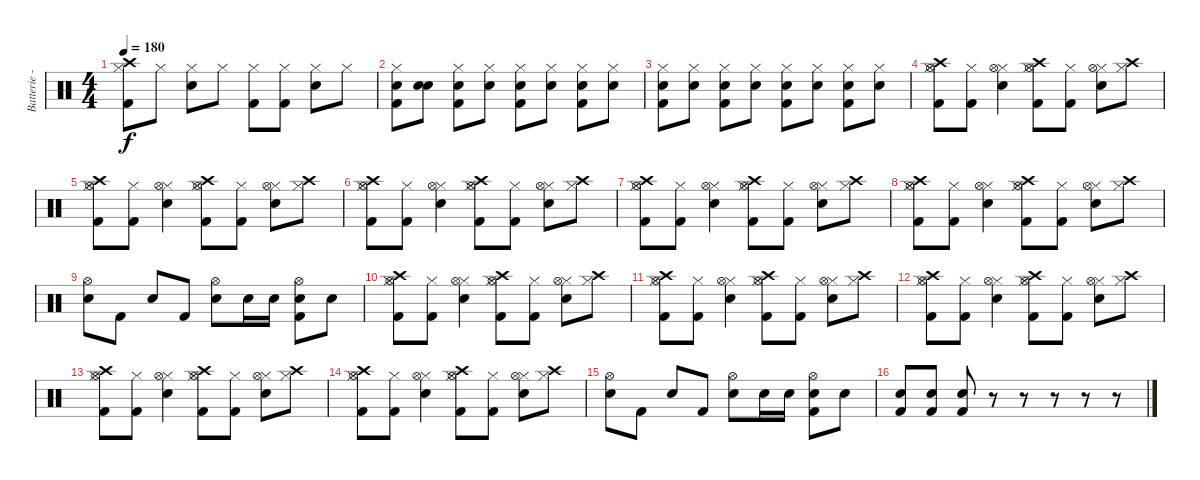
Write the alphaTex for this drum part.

\track ("Batterie - Stevo" "Batterie -") {instrument percussion}
\staff {score}
\articulation defaults
\ts (4 4)
\tempo 180
\clef neutral
\ks c
("Hi-Hat (closed)" "Kick (hit) 2" "Crash high (hit)").8{dy f} "Hi-Hat (closed)".8 ("Hi-Hat (closed)" "Electric Snare (hit)").8 "Hi-Hat (closed)".8 ("Hi-Hat (closed)" "Kick (hit) 2").8 ("Hi-Hat (closed)" "Kick (hit) 2").8 ("Hi-Hat (closed)" "Electric Snare (hit)").8 "Hi-Hat (closed)".8 |
("Hi-Hat (closed)" "Electric Snare (hit)" "Kick (hit) 2").8 ("Snare (hit)" "Electric Snare (hit)").8 ("Hi-Hat (closed)" "Electric Snare (hit)" "Kick (hit) 2").8 ("Hi-Hat (closed)" "Electric Snare (hit)").8 ("Hi-Hat (closed)" "Electric Snare (hit)" "Kick (hit) 2").8 ("Hi-Hat (closed)" "Electric Snare (hit)").8 ("Hi-Hat (closed)" "Electric Snare (hit)" "Kick (hit) 2").8 ("Hi-Hat (closed)" "Electric Snare (hit)").8 |
("Hi-Hat (closed)" "Electric Snare (hit)" "Kick (hit) 2").8 ("Hi-Hat (closed)" "Electric Snare (hit)").8 ("Hi-Hat (closed)" "Electric Snare (hit)" "Kick (hit) 2").8 ("Hi-Hat (closed)" "Electric Snare (hit)").8 ("Hi-Hat (closed)" "Electric Snare (hit)" "Kick (hit) 2").8 ("Hi-Hat (closed)" "Electric Snare (hit)").8 ("Hi-Hat (closed)" "Electric Snare (hit)" "Kick (hit) 2").8 ("Hi-Hat (closed)" "Electric Snare (hit)").8 |
("Hi-Hat (closed)" "Kick (hit) 2" "Hi-Hat (open)" "Crash high (hit)").8 ("Hi-Hat (closed)" "Kick (hit) 2").8 ("Hi-Hat (closed)" "Electric Snare (hit)" "Hi-Hat (open)").4 ("Hi-Hat (closed)" "Kick (hit) 2" "Hi-Hat (open)" "Crash high (hit)").8 ("Hi-Hat (closed)" "Kick (hit) 2").8 ("Hi-Hat (closed)" "Electric Snare (hit)" "Hi-Hat (open)").8 ("Hi-Hat (closed)" "Crash high (hit)").8 |
("Hi-Hat (closed)" "Kick (hit) 2" "Hi-Hat (open)" "Crash high (hit)").8 ("Hi-Hat (closed)" "Kick (hit) 2").8 ("Hi-Hat (closed)" "Electric Snare (hit)" "Hi-Hat (open)").4 ("Hi-Hat (closed)" "Kick (hit) 2" "Hi-Hat (open)" "Crash high (hit)").8 ("Hi-Hat (closed)" "Kick (hit) 2").8 ("Hi-Hat (closed)" "Electric Snare (hit)" "Hi-Hat (open)").8 ("Hi-Hat (closed)" "Crash high (hit)").8 |
("Hi-Hat (closed)" "Kick (hit) 2" "Hi-Hat (open)" "Crash high (hit)").8 ("Hi-Hat (closed)" "Kick (hit) 2").8 ("Hi-Hat (closed)" "Electric Snare (hit)" "Hi-Hat (open)").4 ("Hi-Hat (closed)" "Kick (hit) 2" "Hi-Hat (open)" "Crash high (hit)").8 ("Hi-Hat (closed)" "Kick (hit) 2").8 ("Hi-Hat (closed)" "Electric Snare (hit)" "Hi-Hat (open)").8 ("Hi-Hat (closed)" "Crash high (hit)").8 |
("Hi-Hat (closed)" "Kick (hit) 2" "Hi-Hat (open)" "Crash high (hit)").8 ("Hi-Hat (closed)" "Kick (hit) 2").8 ("Hi-Hat (closed)" "Electric Snare (hit)" "Hi-Hat (open)").4 ("Hi-Hat (closed)" "Kick (hit) 2" "Hi-Hat (open)" "Crash high (hit)").8 ("Hi-Hat (closed)" "Kick (hit) 2").8 ("Hi-Hat (closed)" "Electric Snare (hit)" "Hi-Hat (open)").8 ("Hi-Hat (closed)" "Crash high (hit)").8 |
("Hi-Hat (closed)" "Kick (hit) 2" "Hi-Hat (open)" "Crash high (hit)").8 ("Hi-Hat (closed)" "Kick (hit) 2").8 ("Hi-Hat (closed)" "Electric Snare (hit)" "Hi-Hat (open)").4 ("Hi-Hat (closed)" "Kick (hit) 2" "Hi-Hat (open)" "Crash high (hit)").8 ("Hi-Hat (closed)" "Kick (hit) 2").8 ("Hi-Hat (closed)" "Electric Snare (hit)" "Hi-Hat (open)").8 ("Hi-Hat (closed)" "Crash high (hit)").8 |
("Electric Snare (hit)" "Hi-Hat (open)").8 "Kick (hit) 2".8 "Electric Snare (hit)".8 "Kick (hit) 2".8 ("Electric Snare (hit)" "Hi-Hat (open)").8 "Electric Snare (hit)".16 "Electric Snare (hit)".16 ("Electric Snare (hit)" "Kick (hit) 2" "Hi-Hat (open)").8 "Electric Snare (hit)".8 |
("Hi-Hat (closed)" "Kick (hit) 2" "Hi-Hat (open)" "Crash high (hit)").8 ("Hi-Hat (closed)" "Kick (hit) 2").8 ("Hi-Hat (closed)" "Electric Snare (hit)" "Hi-Hat (open)").4 ("Hi-Hat (closed)" "Kick (hit) 2" "Hi-Hat (open)" "Crash high (hit)").8 ("Hi-Hat (closed)" "Kick (hit) 2").8 ("Hi-Hat (closed)" "Electric Snare (hit)" "Hi-Hat (open)").8 ("Hi-Hat (closed)" "Crash high (hit)").8 |
("Hi-Hat (closed)" "Kick (hit) 2" "Hi-Hat (open)" "Crash high (hit)").8 ("Hi-Hat (closed)" "Kick (hit) 2").8 ("Hi-Hat (closed)" "Electric Snare (hit)" "Hi-Hat (open)").4 ("Hi-Hat (closed)" "Kick (hit) 2" "Hi-Hat (open)" "Crash high (hit)").8 ("Hi-Hat (closed)" "Kick (hit) 2").8 ("Hi-Hat (closed)" "Electric Snare (hit)" "Hi-Hat (open)").8 ("Hi-Hat (closed)" "Crash high (hit)").8 |
("Hi-Hat (closed)" "Kick (hit) 2" "Hi-Hat (open)" "Crash high (hit)").8 ("Hi-Hat (closed)" "Kick (hit) 2").8 ("Hi-Hat (closed)" "Electric Snare (hit)" "Hi-Hat (open)").4 ("Hi-Hat (closed)" "Kick (hit) 2" "Hi-Hat (open)" "Crash high (hit)").8 ("Hi-Hat (closed)" "Kick (hit) 2").8 ("Hi-Hat (closed)" "Electric Snare (hit)" "Hi-Hat (open)").8 ("Hi-Hat (closed)" "Crash high (hit)").8 |
("Hi-Hat (closed)" "Kick (hit) 2" "Hi-Hat (open)" "Crash high (hit)").8 ("Hi-Hat (closed)" "Kick (hit) 2").8 ("Hi-Hat (closed)" "Electric Snare (hit)" "Hi-Hat (open)").4 ("Hi-Hat (closed)" "Kick (hit) 2" "Hi-Hat (open)" "Crash high (hit)").8 ("Hi-Hat (closed)" "Kick (hit) 2").8 ("Hi-Hat (closed)" "Electric Snare (hit)" "Hi-Hat (open)").8 ("Hi-Hat (closed)" "Crash high (hit)").8 |
("Hi-Hat (closed)" "Kick (hit) 2" "Hi-Hat (open)" "Crash high (hit)").8 ("Hi-Hat (closed)" "Kick (hit) 2").8 ("Hi-Hat (closed)" "Electric Snare (hit)" "Hi-Hat (open)").4 ("Hi-Hat (closed)" "Kick (hit) 2" "Hi-Hat (open)" "Crash high (hit)").8 ("Hi-Hat (closed)" "Kick (hit) 2").8 ("Hi-Hat (closed)" "Electric Snare (hit)" "Hi-Hat (open)").8 ("Hi-Hat (closed)" "Crash high (hit)").8 |
("Electric Snare (hit)" "Hi-Hat (open)").8 "Kick (hit) 2".8 "Electric Snare (hit)".8 "Kick (hit) 2".8 ("Electric Snare (hit)" "Hi-Hat (open)").8 "Electric Snare (hit)".16 "Electric Snare (hit)".16 ("Electric Snare (hit)" "Kick (hit) 2" "Hi-Hat (open)").8 "Electric Snare (hit)".8 |
("Electric Snare (hit)" "Kick (hit) 2").8 ("Electric Snare (hit)" "Kick (hit) 2").8 ("Electric Snare (hit)" "Kick (hit) 2").8 r.8 r.8 r.8 r.8 r.8
